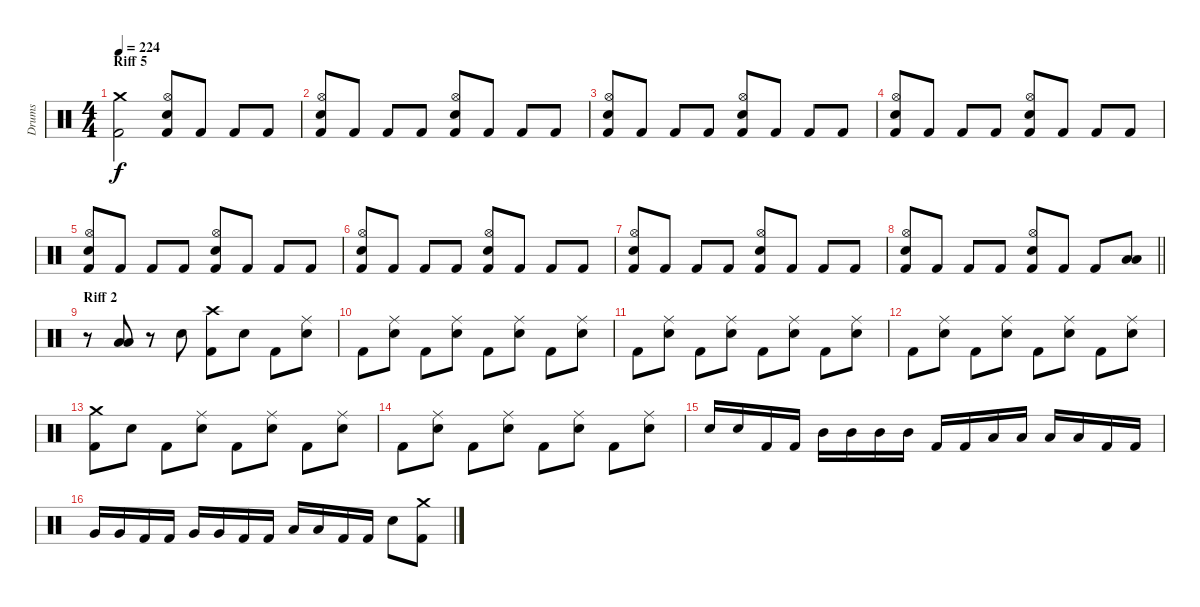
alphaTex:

\track ("Drums" "Drums") {instrument percussion}
\staff {score}
\articulation defaults
\ts (4 4)
\section ("" "Riff 5")
\tempo 224
\clef neutral
\ks c
("Crash medium (hit)" "Kick (hit) 2").2{dy f} ("Kick (hit) 2" "Hi-Hat (open)" "Electric Snare (hit)").8 "Kick (hit) 2".8 "Kick (hit) 2".8 "Kick (hit) 2".8 |
("Kick (hit) 2" "Hi-Hat (open)" "Electric Snare (hit)").8 "Kick (hit) 2".8 "Kick (hit) 2".8 "Kick (hit) 2".8 ("Kick (hit) 2" "Hi-Hat (open)" "Electric Snare (hit)").8 "Kick (hit) 2".8 "Kick (hit) 2".8 "Kick (hit) 2".8 |
("Kick (hit) 2" "Hi-Hat (open)" "Electric Snare (hit)").8 "Kick (hit) 2".8 "Kick (hit) 2".8 "Kick (hit) 2".8 ("Kick (hit) 2" "Hi-Hat (open)" "Electric Snare (hit)").8 "Kick (hit) 2".8 "Kick (hit) 2".8 "Kick (hit) 2".8 |
("Kick (hit) 2" "Hi-Hat (open)" "Electric Snare (hit)").8 "Kick (hit) 2".8 "Kick (hit) 2".8 "Kick (hit) 2".8 ("Kick (hit) 2" "Hi-Hat (open)" "Electric Snare (hit)").8 "Kick (hit) 2".8 "Kick (hit) 2".8 "Kick (hit) 2".8 |
("Kick (hit) 2" "Hi-Hat (open)" "Electric Snare (hit)").8 "Kick (hit) 2".8 "Kick (hit) 2".8 "Kick (hit) 2".8 ("Kick (hit) 2" "Hi-Hat (open)" "Electric Snare (hit)").8 "Kick (hit) 2".8 "Kick (hit) 2".8 "Kick (hit) 2".8 |
("Kick (hit) 2" "Hi-Hat (open)" "Electric Snare (hit)").8 "Kick (hit) 2".8 "Kick (hit) 2".8 "Kick (hit) 2".8 ("Kick (hit) 2" "Hi-Hat (open)" "Electric Snare (hit)").8 "Kick (hit) 2".8 "Kick (hit) 2".8 "Kick (hit) 2".8 |
("Kick (hit) 2" "Hi-Hat (open)" "Electric Snare (hit)").8 "Kick (hit) 2".8 "Kick (hit) 2".8 "Kick (hit) 2".8 ("Kick (hit) 2" "Hi-Hat (open)" "Electric Snare (hit)").8 "Kick (hit) 2".8 "Kick (hit) 2".8 "Kick (hit) 2".8 |
\barLineRight lightlight
("Kick (hit) 2" "Hi-Hat (open)" "Electric Snare (hit)").8 "Kick (hit) 2".8 "Kick (hit) 2".8 "Kick (hit) 2".8 ("Kick (hit) 2" "Hi-Hat (open)" "Electric Snare (hit)").8 "Kick (hit) 2".8 "Kick (hit) 2".8 ("Low Tom (hit)" "Low Floor Tom (hit)").8 |
\section ("" "Riff 2")
r.8 ("Low Floor Tom (hit)" "Low Tom (hit)").8 r.8 "Electric Snare (hit)".8 ("Kick (hit) 2" "Crash high (hit)").8 "Electric Snare (hit)".8 "Kick (hit) 2".8 ("Electric Snare (hit)" "Ride (middle)").8 |
"Kick (hit) 2".8 ("Electric Snare (hit)" "Ride (middle)").8 "Kick (hit) 2".8 ("Electric Snare (hit)" "Ride (middle)").8 "Kick (hit) 2".8 ("Electric Snare (hit)" "Ride (middle)").8 "Kick (hit) 2".8 ("Electric Snare (hit)" "Ride (middle)").8 |
"Kick (hit) 2".8 ("Electric Snare (hit)" "Ride (middle)").8 "Kick (hit) 2".8 ("Electric Snare (hit)" "Ride (middle)").8 "Kick (hit) 2".8 ("Electric Snare (hit)" "Ride (middle)").8 "Kick (hit) 2".8 ("Electric Snare (hit)" "Ride (middle)").8 |
"Kick (hit) 2".8 ("Electric Snare (hit)" "Ride (middle)").8 "Kick (hit) 2".8 ("Electric Snare (hit)" "Ride (middle)").8 "Kick (hit) 2".8 ("Electric Snare (hit)" "Ride (middle)").8 "Kick (hit) 2".8 ("Electric Snare (hit)" "Ride (middle)").8 |
("Kick (hit) 2" "Crash medium (hit)").8 "Electric Snare (hit)".8 "Kick (hit) 2".8 ("Electric Snare (hit)" "Ride (middle)").8 "Kick (hit) 2".8 ("Electric Snare (hit)" "Ride (middle)").8 "Kick (hit) 2".8 ("Electric Snare (hit)" "Ride (middle)").8 |
"Kick (hit) 2".8 ("Electric Snare (hit)" "Ride (middle)").8 "Kick (hit) 2".8 ("Electric Snare (hit)" "Ride (middle)").8 "Kick (hit) 2".8 ("Electric Snare (hit)" "Ride (middle)").8 "Kick (hit) 2".8 ("Electric Snare (hit)" "Ride (middle)").8 |
"Electric Snare (hit)".16 "Electric Snare (hit)".16 "Kick (hit) 2".16 "Kick (hit) 2".16 "Mid Tom (hit)".16 "Mid Tom (hit)".16 "Mid Tom (hit)".16 "Mid Tom (hit)".16 "Kick (hit) 2".16 "Kick (hit) 2".16 "Low Tom (hit)".16 "Low Tom (hit)".16 "Low Tom (hit)".16 "Low Tom (hit)".16 "Kick (hit) 2".16 "Kick (hit) 2".16 |
"Very Low Tom (hit)".16 "Very Low Tom (hit)".16 "Kick (hit) 2".16 "Kick (hit) 2".16 "Very Low Tom (hit)".16 "Very Low Tom (hit)".16 "Kick (hit) 2".16 "Kick (hit) 2".16 "Low Floor Tom (hit)".16 "Low Floor Tom (hit)".16 "Kick (hit) 2".16 "Kick (hit) 2".16 "Electric Snare (hit)".8 ("Crash medium (hit)" "Kick (hit) 2").8
